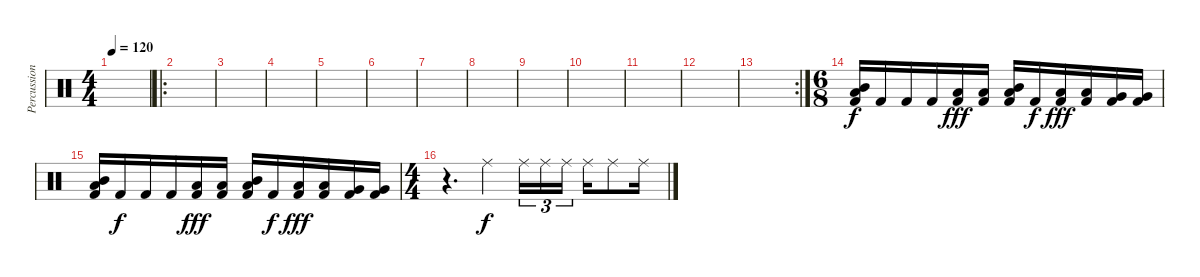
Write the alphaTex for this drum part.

\track ("Percussions" "Percussion") {instrument percussion}
\staff {score}
\articulation defaults
\ts (4 4)
\tempo 120
\clef neutral
\ks c
|
\ro
|
|
|
|
|
|
|
|
|
|
|
\rc 2
|
\ts (6 8)
("Kick (hit) 2" "Low Floor Tom (hit)" "Mid Tom (hit)").16 "Kick (hit) 2".16{dy f} "Kick (hit) 2".16 "Kick (hit) 2".16 ("Kick (hit) 2" "Low Tom (hit)").16{dy fff} ("Kick (hit) 2" "Low Tom (hit)").16 ("Kick (hit) 2" "Mid Tom (hit)" "Low Tom (hit)").16 "Kick (hit) 2".16{dy f} ("Kick (hit) 2" "Low Tom (hit)").16{dy fff} ("Kick (hit) 2" "Low Tom (hit)").16 ("Kick (hit) 2" "Very Low Tom (hit)").16 ("Kick (hit) 2" "Very Low Tom (hit)").16 |
("Kick (hit) 2" "Low Floor Tom (hit)" "Mid Tom (hit)").16 "Kick (hit) 2".16{dy f} "Kick (hit) 2".16 "Kick (hit) 2".16 ("Kick (hit) 2" "Low Tom (hit)").16{dy fff} ("Kick (hit) 2" "Low Tom (hit)").16 ("Kick (hit) 2" "Mid Tom (hit)" "Low Tom (hit)").16 "Kick (hit) 2".16{dy f} ("Kick (hit) 2" "Low Tom (hit)").16{dy fff} ("Kick (hit) 2" "Low Tom (hit)").16 ("Kick (hit) 2" "Very Low Tom (hit)").16 ("Kick (hit) 2" "Very Low Tom (hit)").16 |
\ts (4 4)
r.4{d} "Ride (middle)".4{dy f} "Ride (middle)".16{tu (3 2)} "Ride (middle)".16{tu (3 2)} "Ride (middle)".16{tu (3 2)} "Ride (middle)".16 "Ride (middle)".8 "Ride (middle)".16
